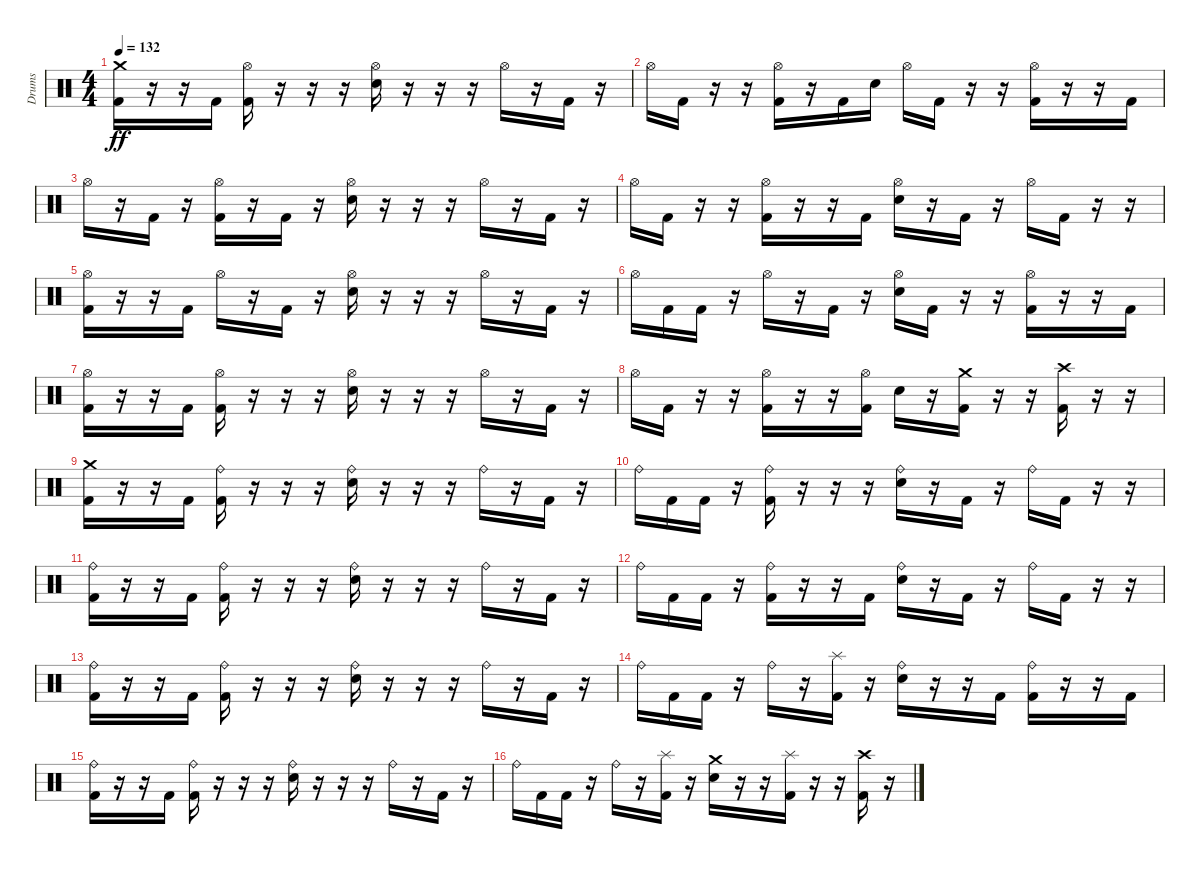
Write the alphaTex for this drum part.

\track ("Drums" "Drums") {instrument percussion}
\staff {score}
\articulation defaults
\ts (4 4)
\tempo 132
\clef neutral
\ks c
("Crash medium (hit)" "Kick (hit) 2").16{dy ff} r.16 r.16 "Kick (hit) 2".16 ("Hi-Hat (open)" "Kick (hit) 2").16 r.16 r.16 r.16 ("Hi-Hat (open)" "Electric Snare (hit)").16 r.16 r.16 r.16 "Hi-Hat (open)".16 r.16 "Kick (hit) 2".16 r.16 |
"Hi-Hat (open)".16 "Kick (hit) 2".16 r.16 r.16 ("Hi-Hat (open)" "Kick (hit) 2").16 r.16 "Kick (hit) 2".16 "Electric Snare (hit)".16 "Hi-Hat (open)".16 "Kick (hit) 2".16 r.16 r.16 ("Hi-Hat (open)" "Kick (hit) 2").16 r.16 r.16 "Kick (hit) 2".16 |
"Hi-Hat (open)".16 r.16 "Kick (hit) 2".16 r.16 ("Hi-Hat (open)" "Kick (hit) 2").16 r.16 "Kick (hit) 2".16 r.16 ("Hi-Hat (open)" "Electric Snare (hit)").16 r.16 r.16 r.16 "Hi-Hat (open)".16 r.16 "Kick (hit) 2".16 r.16 |
"Hi-Hat (open)".16 "Kick (hit) 2".16 r.16 r.16 ("Hi-Hat (open)" "Kick (hit) 2").16 r.16 r.16 "Kick (hit) 2".16 ("Hi-Hat (open)" "Electric Snare (hit)").16 r.16 "Kick (hit) 2".16 r.16 "Hi-Hat (open)".16 "Kick (hit) 2".16 r.16 r.16 |
("Hi-Hat (open)" "Kick (hit) 2").16 r.16 r.16 "Kick (hit) 2".16 "Hi-Hat (open)".16 r.16 "Kick (hit) 2".16 r.16 ("Hi-Hat (open)" "Electric Snare (hit)").16 r.16 r.16 r.16 "Hi-Hat (open)".16 r.16 "Kick (hit) 2".16 r.16 |
"Hi-Hat (open)".16 "Kick (hit) 2".16 "Kick (hit) 2".16 r.16 "Hi-Hat (open)".16 r.16 "Kick (hit) 2".16 r.16 ("Hi-Hat (open)" "Electric Snare (hit)").16 "Kick (hit) 2".16 r.16 r.16 ("Hi-Hat (open)" "Kick (hit) 2").16 r.16 r.16 "Kick (hit) 2".16 |
("Hi-Hat (open)" "Kick (hit) 2").16 r.16 r.16 "Kick (hit) 2".16 ("Hi-Hat (open)" "Kick (hit) 2").16 r.16 r.16 r.16 ("Hi-Hat (open)" "Electric Snare (hit)").16 r.16 r.16 r.16 "Hi-Hat (open)".16 r.16 "Kick (hit) 2".16 r.16 |
"Hi-Hat (open)".16 "Kick (hit) 2".16 r.16 r.16 ("Hi-Hat (open)" "Kick (hit) 2").16 r.16 r.16 ("Hi-Hat (open)" "Kick (hit) 2").16 "Electric Snare (hit)".16 r.16 ("Crash medium (hit)" "Kick (hit) 2").16 r.16 r.16 ("Crash high (hit)" "Kick (hit) 2").16 r.16 r.16 |
("Crash medium (hit)" "Kick (hit) 2").16 r.16 r.16 "Kick (hit) 2".16 ("Ride (bell)" "Kick (hit) 2").16 r.16 r.16 r.16 ("Ride (bell)" "Electric Snare (hit)").16 r.16 r.16 r.16 "Ride (bell)".16 r.16 "Kick (hit) 2".16 r.16 |
"Ride (bell)".16 "Kick (hit) 2".16 "Kick (hit) 2".16 r.16 ("Ride (bell)" "Kick (hit) 2").16 r.16 r.16 r.16 ("Ride (bell)" "Electric Snare (hit)").16 r.16 "Kick (hit) 2".16 r.16 "Ride (bell)".16 "Kick (hit) 2".16 r.16 r.16 |
("Ride (bell)" "Kick (hit) 2").16 r.16 r.16 "Kick (hit) 2".16 ("Ride (bell)" "Kick (hit) 2").16 r.16 r.16 r.16 ("Ride (bell)" "Electric Snare (hit)").16 r.16 r.16 r.16 "Ride (bell)".16 r.16 "Kick (hit) 2".16 r.16 |
"Ride (bell)".16 "Kick (hit) 2".16 "Kick (hit) 2".16 r.16 ("Ride (bell)" "Kick (hit) 2").16 r.16 r.16 "Kick (hit) 2".16 ("Ride (bell)" "Electric Snare (hit)").16 r.16 "Kick (hit) 2".16 r.16 "Ride (bell)".16 "Kick (hit) 2".16 r.16 r.16 |
("Ride (bell)" "Kick (hit) 2").16 r.16 r.16 "Kick (hit) 2".16 ("Ride (bell)" "Kick (hit) 2").16 r.16 r.16 r.16 ("Ride (bell)" "Electric Snare (hit)").16 r.16 r.16 r.16 "Ride (bell)".16 r.16 "Kick (hit) 2".16 r.16 |
"Ride (bell)".16 "Kick (hit) 2".16 "Kick (hit) 2".16 r.16 "Ride (bell)".16 r.16 ("Splash (hit)" "Kick (hit) 2").16 r.16 ("Ride (bell)" "Electric Snare (hit)").16 r.16 r.16 "Kick (hit) 2".16 ("Ride (bell)" "Kick (hit) 2").16 r.16 r.16 "Kick (hit) 2".16 |
("Ride (bell)" "Kick (hit) 2").16 r.16 r.16 "Kick (hit) 2".16 ("Ride (bell)" "Kick (hit) 2").16 r.16 r.16 r.16 ("Ride (bell)" "Electric Snare (hit)").16 r.16 r.16 r.16 "Ride (bell)".16 r.16 "Kick (hit) 2".16 r.16 |
"Ride (bell)".16 "Kick (hit) 2".16 "Kick (hit) 2".16 r.16 "Ride (bell)".16 r.16 ("Splash (hit)" "Kick (hit) 2").16 r.16 ("Crash medium (hit)" "Electric Snare (hit)").16 r.16 r.16 ("Splash (hit)" "Kick (hit) 2").16 r.16 r.16 ("Crash high (hit)" "Kick (hit) 2").16 r.16
